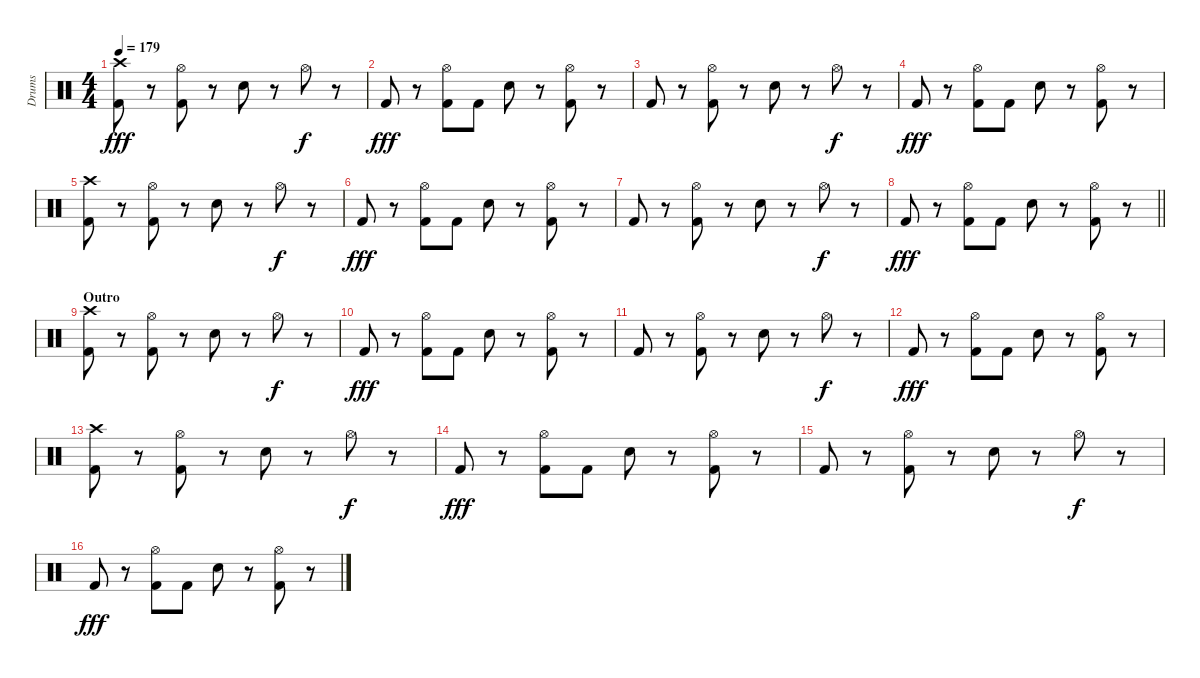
\track ("Drums" "Drums") {instrument percussion}
\staff {score}
\articulation defaults
\ts (4 4)
\tempo 179
\clef neutral
\ks c
("Crash high (hit)" "Kick (hit) 2").8{dy fff} r.8 ("Hi-Hat (open)" "Kick (hit) 2").8 r.8 "Snare (hit) 2".8 r.8 "Hi-Hat (open)".8{dy f} r.8 |
"Kick (hit) 2".8{dy fff} r.8 ("Hi-Hat (open)" "Kick (hit) 2").8 "Kick (hit) 2".8 "Snare (hit) 2".8 r.8 ("Hi-Hat (open)" "Kick (hit) 2").8 r.8 |
"Kick (hit) 2".8 r.8 ("Hi-Hat (open)" "Kick (hit) 2").8 r.8 "Snare (hit) 2".8 r.8 "Hi-Hat (open)".8{dy f} r.8 |
"Kick (hit) 2".8{dy fff} r.8 ("Hi-Hat (open)" "Kick (hit) 2").8 "Kick (hit) 2".8 "Snare (hit) 2".8 r.8 ("Hi-Hat (open)" "Kick (hit) 2").8 r.8 |
("Crash high (hit)" "Kick (hit) 2").8 r.8 ("Hi-Hat (open)" "Kick (hit) 2").8 r.8 "Snare (hit) 2".8 r.8 "Hi-Hat (open)".8{dy f} r.8 |
"Kick (hit) 2".8{dy fff} r.8 ("Hi-Hat (open)" "Kick (hit) 2").8 "Kick (hit) 2".8 "Snare (hit) 2".8 r.8 ("Hi-Hat (open)" "Kick (hit) 2").8 r.8 |
"Kick (hit) 2".8 r.8 ("Hi-Hat (open)" "Kick (hit) 2").8 r.8 "Snare (hit) 2".8 r.8 "Hi-Hat (open)".8{dy f} r.8 |
\barLineRight lightlight "Kick (hit) 2".8{dy fff}
r.8 ("Hi-Hat (open)" "Kick (hit) 2").8 "Kick (hit) 2".8 "Snare (hit) 2".8 r.8 ("Hi-Hat (open)" "Kick (hit) 2").8 r.8 |
\section ("" "Outro")
("Crash high (hit)" "Kick (hit) 2").8 r.8 ("Hi-Hat (open)" "Kick (hit) 2").8 r.8 "Snare (hit) 2".8 r.8 "Hi-Hat (open)".8{dy f} r.8 |
"Kick (hit) 2".8{dy fff} r.8 ("Hi-Hat (open)" "Kick (hit) 2").8 "Kick (hit) 2".8 "Snare (hit) 2".8 r.8 ("Hi-Hat (open)" "Kick (hit) 2").8 r.8 |
"Kick (hit) 2".8 r.8 ("Hi-Hat (open)" "Kick (hit) 2").8 r.8 "Snare (hit) 2".8 r.8 "Hi-Hat (open)".8{dy f} r.8 |
"Kick (hit) 2".8{dy fff} r.8 ("Hi-Hat (open)" "Kick (hit) 2").8 "Kick (hit) 2".8 "Snare (hit) 2".8 r.8 ("Hi-Hat (open)" "Kick (hit) 2").8 r.8 |
("Crash high (hit)" "Kick (hit) 2").8 r.8 ("Hi-Hat (open)" "Kick (hit) 2").8 r.8 "Snare (hit) 2".8 r.8 "Hi-Hat (open)".8{dy f} r.8 |
"Kick (hit) 2".8{dy fff} r.8 ("Hi-Hat (open)" "Kick (hit) 2").8 "Kick (hit) 2".8 "Snare (hit) 2".8 r.8 ("Hi-Hat (open)" "Kick (hit) 2").8 r.8 |
"Kick (hit) 2".8 r.8 ("Hi-Hat (open)" "Kick (hit) 2").8 r.8 "Snare (hit) 2".8 r.8 "Hi-Hat (open)".8{dy f} r.8 |
"Kick (hit) 2".8{dy fff} r.8 ("Hi-Hat (open)" "Kick (hit) 2").8 "Kick (hit) 2".8 "Snare (hit) 2".8 r.8 ("Hi-Hat (open)" "Kick (hit) 2").8 r.8
